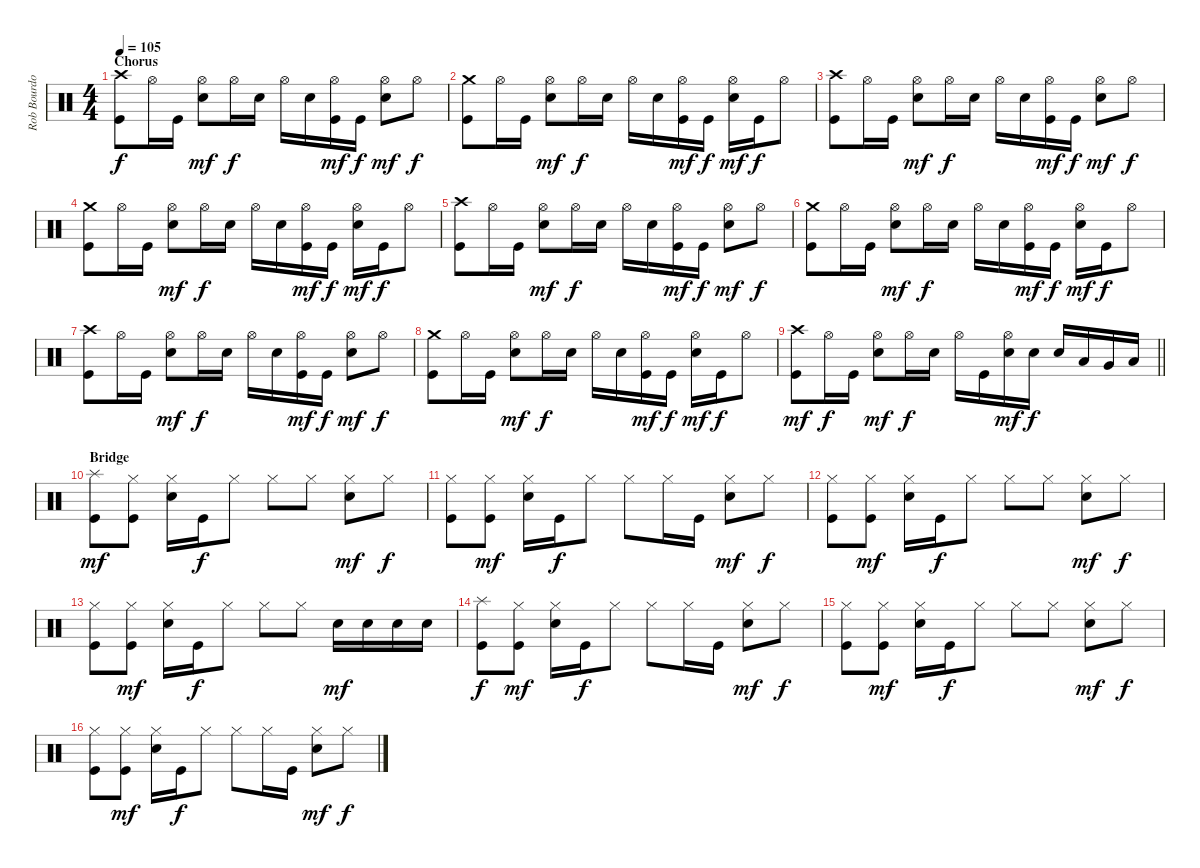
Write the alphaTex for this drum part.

\track ("Rob Bourdon - Drums" "Rob Bourdo") {instrument percussion}
\staff {score}
\articulation defaults
\ts (4 4)
\section ("" "Chorus")
\tempo 105
\clef neutral
\ks c
("Crash high (hit)" "Kick (hit)").8{dy f} "Hi-Hat (open)".16 "Kick (hit)".16 ("Hi-Hat (open)" "Electric Snare (hit)").8{dy mf} "Hi-Hat (open)".16{dy f} "Electric Snare (hit)".16 "Hi-Hat (open)".16 "Electric Snare (hit)".16 ("Hi-Hat (open)" "Kick (hit)").16{dy mf} "Kick (hit)".16{dy f} ("Hi-Hat (open)" "Electric Snare (hit)").8{dy mf} "Hi-Hat (open)".8{dy f} |
("Crash medium (hit)" "Kick (hit)").8 "Hi-Hat (open)".16 "Kick (hit)".16 ("Hi-Hat (open)" "Electric Snare (hit)").8{dy mf} "Hi-Hat (open)".16{dy f} "Electric Snare (hit)".16 "Hi-Hat (open)".16 "Electric Snare (hit)".16 ("Hi-Hat (open)" "Kick (hit)").16{dy mf} "Kick (hit)".16{dy f} ("Hi-Hat (open)" "Electric Snare (hit)").16{dy mf} "Kick (hit)".16{dy f} "Hi-Hat (open)".8 |
("Crash high (hit)" "Kick (hit)").8 "Hi-Hat (open)".16 "Kick (hit)".16 ("Hi-Hat (open)" "Electric Snare (hit)").8{dy mf} "Hi-Hat (open)".16{dy f} "Electric Snare (hit)".16 "Hi-Hat (open)".16 "Electric Snare (hit)".16 ("Hi-Hat (open)" "Kick (hit)").16{dy mf} "Kick (hit)".16{dy f} ("Hi-Hat (open)" "Electric Snare (hit)").8{dy mf} "Hi-Hat (open)".8{dy f} |
("Crash medium (hit)" "Kick (hit)").8 "Hi-Hat (open)".16 "Kick (hit)".16 ("Hi-Hat (open)" "Electric Snare (hit)").8{dy mf} "Hi-Hat (open)".16{dy f} "Electric Snare (hit)".16 "Hi-Hat (open)".16 "Electric Snare (hit)".16 ("Hi-Hat (open)" "Kick (hit)").16{dy mf} "Kick (hit)".16{dy f} ("Hi-Hat (open)" "Electric Snare (hit)").16{dy mf} "Kick (hit)".16{dy f} "Hi-Hat (open)".8 |
("Crash high (hit)" "Kick (hit)").8 "Hi-Hat (open)".16 "Kick (hit)".16 ("Hi-Hat (open)" "Electric Snare (hit)").8{dy mf} "Hi-Hat (open)".16{dy f} "Electric Snare (hit)".16 "Hi-Hat (open)".16 "Electric Snare (hit)".16 ("Hi-Hat (open)" "Kick (hit)").16{dy mf} "Kick (hit)".16{dy f} ("Hi-Hat (open)" "Electric Snare (hit)").8{dy mf} "Hi-Hat (open)".8{dy f} |
("Crash medium (hit)" "Kick (hit)").8 "Hi-Hat (open)".16 "Kick (hit)".16 ("Hi-Hat (open)" "Electric Snare (hit)").8{dy mf} "Hi-Hat (open)".16{dy f} "Electric Snare (hit)".16 "Hi-Hat (open)".16 "Electric Snare (hit)".16 ("Hi-Hat (open)" "Kick (hit)").16{dy mf} "Kick (hit)".16{dy f} ("Hi-Hat (open)" "Electric Snare (hit)").16{dy mf} "Kick (hit)".16{dy f} "Hi-Hat (open)".8 |
("Crash high (hit)" "Kick (hit)").8 "Hi-Hat (open)".16 "Kick (hit)".16 ("Hi-Hat (open)" "Electric Snare (hit)").8{dy mf} "Hi-Hat (open)".16{dy f} "Electric Snare (hit)".16 "Hi-Hat (open)".16 "Electric Snare (hit)".16 ("Hi-Hat (open)" "Kick (hit)").16{dy mf} "Kick (hit)".16{dy f} ("Hi-Hat (open)" "Electric Snare (hit)").8{dy mf} "Hi-Hat (open)".8{dy f} |
("Crash medium (hit)" "Kick (hit)").8 "Hi-Hat (open)".16 "Kick (hit)".16 ("Hi-Hat (open)" "Electric Snare (hit)").8{dy mf} "Hi-Hat (open)".16{dy f} "Electric Snare (hit)".16 "Hi-Hat (open)".16 "Electric Snare (hit)".16 ("Hi-Hat (open)" "Kick (hit)").16{dy mf} "Kick (hit)".16{dy f} ("Hi-Hat (open)" "Electric Snare (hit)").16{dy mf} "Kick (hit)".16{dy f} "Hi-Hat (open)".8 |
\barLineRight lightlight
("Crash high (hit)" "Kick (hit)").8{dy mf} "Hi-Hat (open)".16{dy f} "Kick (hit)".16 ("Hi-Hat (open)" "Electric Snare (hit)").8{dy mf} "Hi-Hat (open)".16{dy f} "Electric Snare (hit)".16 "Hi-Hat (open)".16 "Kick (hit)".16 ("Hi-Hat (open)" "Electric Snare (hit)").16{dy mf} "Electric Snare (hit)".16{dy f} "Electric Snare (hit)".16 "Low Tom (hit)".16 "Very Low Tom (hit)".16 "Low Floor Tom (hit)".16 |
\section ("" "Bridge")
("Splash (hit)" "Kick (hit)").8{dy mf} ("Hi-Hat (closed)" "Kick (hit)").8 ("Hi-Hat (closed)" "Electric Snare (hit)").16 "Kick (hit)".16{dy f} "Hi-Hat (closed)".8 "Hi-Hat (closed)".8 "Hi-Hat (closed)".8 ("Hi-Hat (closed)" "Electric Snare (hit)").8{dy mf} "Hi-Hat (closed)".8{dy f} |
("Hi-Hat (closed)" "Kick (hit)").8 ("Hi-Hat (closed)" "Kick (hit)").8{dy mf} ("Hi-Hat (closed)" "Electric Snare (hit)").16 "Kick (hit)".16{dy f} "Hi-Hat (closed)".8 "Hi-Hat (closed)".8 "Hi-Hat (closed)".16 "Kick (hit)".16 ("Hi-Hat (closed)" "Electric Snare (hit)").8{dy mf} "Hi-Hat (closed)".8{dy f} |
("Hi-Hat (closed)" "Kick (hit)").8 ("Hi-Hat (closed)" "Kick (hit)").8{dy mf} ("Hi-Hat (closed)" "Electric Snare (hit)").16 "Kick (hit)".16{dy f} "Hi-Hat (closed)".8 "Hi-Hat (closed)".8 "Hi-Hat (closed)".8 ("Hi-Hat (closed)" "Electric Snare (hit)").8{dy mf} "Hi-Hat (closed)".8{dy f} |
("Hi-Hat (closed)" "Kick (hit)").8 ("Hi-Hat (closed)" "Kick (hit)").8{dy mf} ("Hi-Hat (closed)" "Electric Snare (hit)").16 "Kick (hit)".16{dy f} "Hi-Hat (closed)".8 "Hi-Hat (closed)".8 "Hi-Hat (closed)".8 "Electric Snare (hit)".16{dy mf} "Electric Snare (hit)".16 "Electric Snare (hit)".16 "Electric Snare (hit)".16 |
("Splash (hit)" "Kick (hit)").8{dy f} ("Hi-Hat (closed)" "Kick (hit)").8{dy mf} ("Hi-Hat (closed)" "Electric Snare (hit)").16 "Kick (hit)".16{dy f} "Hi-Hat (closed)".8 "Hi-Hat (closed)".8 "Hi-Hat (closed)".16 "Kick (hit)".16 ("Hi-Hat (closed)" "Electric Snare (hit)").8{dy mf} "Hi-Hat (closed)".8{dy f} |
("Hi-Hat (closed)" "Kick (hit)").8 ("Hi-Hat (closed)" "Kick (hit)").8{dy mf} ("Hi-Hat (closed)" "Electric Snare (hit)").16 "Kick (hit)".16{dy f} "Hi-Hat (closed)".8 "Hi-Hat (closed)".8 "Hi-Hat (closed)".8 ("Hi-Hat (closed)" "Electric Snare (hit)").8{dy mf} "Hi-Hat (closed)".8{dy f} |
("Hi-Hat (closed)" "Kick (hit)").8 ("Hi-Hat (closed)" "Kick (hit)").8{dy mf} ("Hi-Hat (closed)" "Electric Snare (hit)").16 "Kick (hit)".16{dy f} "Hi-Hat (closed)".8 "Hi-Hat (closed)".8 "Hi-Hat (closed)".16 "Kick (hit)".16 ("Hi-Hat (closed)" "Electric Snare (hit)").8{dy mf} "Hi-Hat (closed)".8{dy f}
